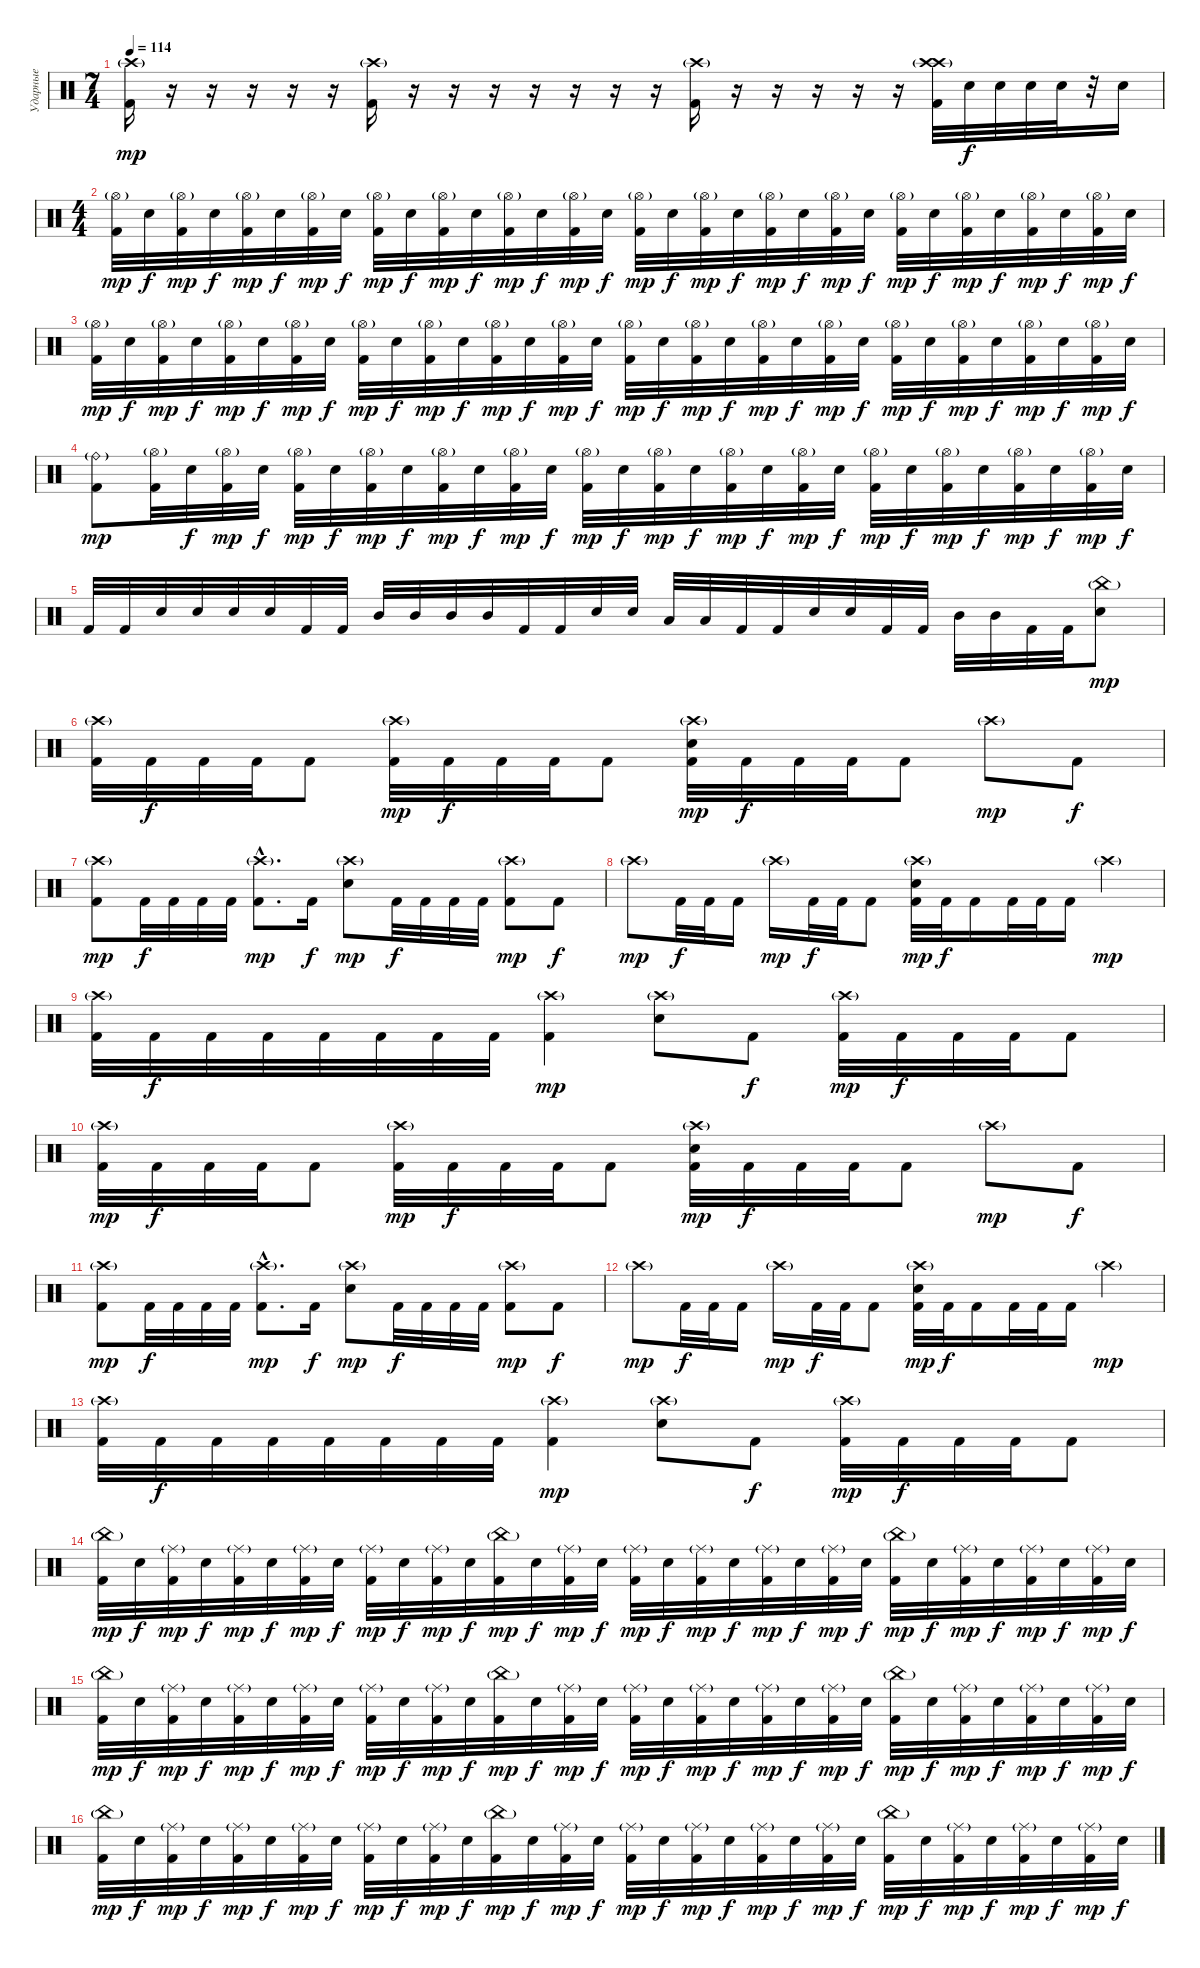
\track ("Ударные" "Ударные") {instrument percussion}
\staff {score}
\articulation defaults
\ts (7 4)
\tempo 114
\clef neutral
\ks c
("Crash high (hit)"{g} "Kick (hit) 2").16{dy mp} r.16 r.16 r.16 r.16 r.16 ("Crash high (hit)"{g} "Kick (hit) 2").16 r.16 r.16 r.16 r.16 r.16 r.16 r.16 ("Crash high (hit)"{g} "Kick (hit) 2").16 r.16 r.16 r.16 r.16 r.16 ("Crash high (hit)"{g} "Kick (hit) 2" "Crash high (hit)").32 "Electric Snare (hit)".32{dy f} "Electric Snare (hit)".32 "Electric Snare (hit)".32 "Electric Snare (hit)".32 r.32 "Electric Snare (hit)".16 |
\ts (4 4)
("Hi-Hat (open)"{g} "Kick (hit) 2").32{dy mp} "Electric Snare (hit)".32{dy f} ("Hi-Hat (open)"{g} "Kick (hit) 2").32{dy mp} "Electric Snare (hit)".32{dy f} ("Hi-Hat (open)"{g} "Kick (hit) 2").32{dy mp} "Electric Snare (hit)".32{dy f} ("Hi-Hat (open)"{g} "Kick (hit) 2").32{dy mp} "Electric Snare (hit)".32{dy f} ("Hi-Hat (open)"{g} "Kick (hit) 2").32{dy mp} "Electric Snare (hit)".32{dy f} ("Hi-Hat (open)"{g} "Kick (hit) 2").32{dy mp} "Electric Snare (hit)".32{dy f} ("Hi-Hat (open)"{g} "Kick (hit) 2").32{dy mp} "Electric Snare (hit)".32{dy f} ("Hi-Hat (open)"{g} "Kick (hit) 2").32{dy mp} "Electric Snare (hit)".32{dy f} ("Hi-Hat (open)"{g} "Kick (hit) 2").32{dy mp} "Electric Snare (hit)".32{dy f} ("Hi-Hat (open)"{g} "Kick (hit) 2").32{dy mp} "Electric Snare (hit)".32{dy f} ("Hi-Hat (open)"{g} "Kick (hit) 2").32{dy mp} "Electric Snare (hit)".32{dy f} ("Hi-Hat (open)"{g} "Kick (hit) 2").32{dy mp} "Electric Snare (hit)".32{dy f} ("Hi-Hat (open)"{g} "Kick (hit) 2").32{dy mp} "Electric Snare (hit)".32{dy f} ("Hi-Hat (open)"{g} "Kick (hit) 2").32{dy mp} "Electric Snare (hit)".32{dy f} ("Hi-Hat (open)"{g} "Kick (hit) 2").32{dy mp} "Electric Snare (hit)".32{dy f} ("Hi-Hat (open)"{g} "Kick (hit) 2").32{dy mp} "Electric Snare (hit)".32{dy f} |
("Hi-Hat (open)"{g} "Kick (hit) 2").32{dy mp} "Electric Snare (hit)".32{dy f} ("Hi-Hat (open)"{g} "Kick (hit) 2").32{dy mp} "Electric Snare (hit)".32{dy f} ("Hi-Hat (open)"{g} "Kick (hit) 2").32{dy mp} "Electric Snare (hit)".32{dy f} ("Hi-Hat (open)"{g} "Kick (hit) 2").32{dy mp} "Electric Snare (hit)".32{dy f} ("Hi-Hat (open)"{g} "Kick (hit) 2").32{dy mp} "Electric Snare (hit)".32{dy f} ("Hi-Hat (open)"{g} "Kick (hit) 2").32{dy mp} "Electric Snare (hit)".32{dy f} ("Hi-Hat (open)"{g} "Kick (hit) 2").32{dy mp} "Electric Snare (hit)".32{dy f} ("Hi-Hat (open)"{g} "Kick (hit) 2").32{dy mp} "Electric Snare (hit)".32{dy f} ("Hi-Hat (open)"{g} "Kick (hit) 2").32{dy mp} "Electric Snare (hit)".32{dy f} ("Hi-Hat (open)"{g} "Kick (hit) 2").32{dy mp} "Electric Snare (hit)".32{dy f} ("Hi-Hat (open)"{g} "Kick (hit) 2").32{dy mp} "Electric Snare (hit)".32{dy f} ("Hi-Hat (open)"{g} "Kick (hit) 2").32{dy mp} "Electric Snare (hit)".32{dy f} ("Hi-Hat (open)"{g} "Kick (hit) 2").32{dy mp} "Electric Snare (hit)".32{dy f} ("Hi-Hat (open)"{g} "Kick (hit) 2").32{dy mp} "Electric Snare (hit)".32{dy f} ("Hi-Hat (open)"{g} "Kick (hit) 2").32{dy mp} "Electric Snare (hit)".32{dy f} ("Hi-Hat (open)"{g} "Kick (hit) 2").32{dy mp} "Electric Snare (hit)".32{dy f} |
("Ride (bell)"{g} "Kick (hit) 2").8{dy mp} ("Hi-Hat (open)"{g} "Kick (hit) 2").32 "Electric Snare (hit)".32{dy f} ("Hi-Hat (open)"{g} "Kick (hit) 2").32{dy mp} "Electric Snare (hit)".32{dy f} ("Hi-Hat (open)"{g} "Kick (hit) 2").32{dy mp} "Electric Snare (hit)".32{dy f} ("Hi-Hat (open)"{g} "Kick (hit) 2").32{dy mp} "Electric Snare (hit)".32{dy f} ("Hi-Hat (open)"{g} "Kick (hit) 2").32{dy mp} "Electric Snare (hit)".32{dy f} ("Hi-Hat (open)"{g} "Kick (hit) 2").32{dy mp} "Electric Snare (hit)".32{dy f} ("Hi-Hat (open)"{g} "Kick (hit) 2").32{dy mp} "Electric Snare (hit)".32{dy f} ("Hi-Hat (open)"{g} "Kick (hit) 2").32{dy mp} "Electric Snare (hit)".32{dy f} ("Hi-Hat (open)"{g} "Kick (hit) 2").32{dy mp} "Electric Snare (hit)".32{dy f} ("Hi-Hat (open)"{g} "Kick (hit) 2").32{dy mp} "Electric Snare (hit)".32{dy f} ("Hi-Hat (open)"{g} "Kick (hit) 2").32{dy mp} "Electric Snare (hit)".32{dy f} ("Hi-Hat (open)"{g} "Kick (hit) 2").32{dy mp} "Electric Snare (hit)".32{dy f} ("Hi-Hat (open)"{g} "Kick (hit) 2").32{dy mp} "Electric Snare (hit)".32{dy f} ("Hi-Hat (open)"{g} "Kick (hit) 2").32{dy mp} "Electric Snare (hit)".32{dy f} |
"Kick (hit) 2".32 "Kick (hit) 2".32 "Electric Snare (hit)".32 "Electric Snare (hit)".32 "Electric Snare (hit)".32 "Electric Snare (hit)".32 "Kick (hit) 2".32 "Kick (hit) 2".32 "Mid Tom (hit)".32 "Mid Tom (hit)".32 "Mid Tom (hit)".32 "Mid Tom (hit)".32 "Kick (hit) 2".32 "Kick (hit) 2".32 "Electric Snare (hit)".32 "Electric Snare (hit)".32 "Low Tom (hit)".32 "Low Tom (hit)".32 "Kick (hit) 2".32 "Kick (hit) 2".32 "Electric Snare (hit)".32 "Electric Snare (hit)".32 "Kick (hit) 2".32 "Kick (hit) 2".32 "Mid Tom (hit)".32 "Mid Tom (hit)".32 "Kick (hit) 2".32 "Kick (hit) 2".32 ("China (hit)"{g} "Electric Snare (hit)").8{dy mp} |
("Crash high (hit)"{g} "Kick (hit) 2").32 "Kick (hit) 2".32{dy f} "Kick (hit) 2".32 "Kick (hit) 2".32 "Kick (hit) 2".8 ("Crash high (hit)"{g} "Kick (hit) 2").32{dy mp} "Kick (hit) 2".32{dy f} "Kick (hit) 2".32 "Kick (hit) 2".32 "Kick (hit) 2".8 ("Crash high (hit)"{g} "Electric Snare (hit)" "Kick (hit) 2").32{dy mp} "Kick (hit) 2".32{dy f} "Kick (hit) 2".32 "Kick (hit) 2".32 "Kick (hit) 2".8 "Crash high (hit)"{g}.8{dy mp} "Kick (hit) 2".8{dy f} |
("Crash high (hit)"{g} "Kick (hit) 2").8{dy mp} "Kick (hit) 2".32{dy f} "Kick (hit) 2".32 "Kick (hit) 2".32 "Kick (hit) 2".32 ("Crash high (hit)"{g hac} "Kick (hit) 2"{hac}).8{d dy mp} "Kick (hit) 2".16{dy f} ("Crash high (hit)"{g} "Electric Snare (hit)").8{dy mp} "Kick (hit) 2".32{dy f} "Kick (hit) 2".32 "Kick (hit) 2".32 "Kick (hit) 2".32 ("Crash high (hit)"{g} "Kick (hit) 2").8{dy mp} "Kick (hit) 2".8{dy f} |
"Crash high (hit)"{g}.8{dy mp} "Kick (hit) 2".32{dy f} "Kick (hit) 2".32 "Kick (hit) 2".16 "Crash high (hit)"{g}.16{dy mp} "Kick (hit) 2".32{dy f} "Kick (hit) 2".32 "Kick (hit) 2".8 ("Crash high (hit)"{g} "Electric Snare (hit)" "Kick (hit) 2").32{dy mp} "Kick (hit) 2".32{dy f} "Kick (hit) 2".16 "Kick (hit) 2".32 "Kick (hit) 2".32 "Kick (hit) 2".16 "Crash high (hit)"{g}.4{dy mp} |
("Crash high (hit)"{g} "Kick (hit) 2").32 "Kick (hit) 2".32{dy f} "Kick (hit) 2".32 "Kick (hit) 2".32 "Kick (hit) 2".32 "Kick (hit) 2".32 "Kick (hit) 2".32 "Kick (hit) 2".32 ("Crash high (hit)"{g} "Kick (hit) 2").4{dy mp} ("Crash high (hit)"{g} "Electric Snare (hit)").8 "Kick (hit) 2".8{dy f} ("Crash high (hit)"{g} "Kick (hit) 2").32{dy mp} "Kick (hit) 2".32{dy f} "Kick (hit) 2".32 "Kick (hit) 2".32 "Kick (hit) 2".8 |
("Crash high (hit)"{g} "Kick (hit) 2").32{dy mp} "Kick (hit) 2".32{dy f} "Kick (hit) 2".32 "Kick (hit) 2".32 "Kick (hit) 2".8 ("Crash high (hit)"{g} "Kick (hit) 2").32{dy mp} "Kick (hit) 2".32{dy f} "Kick (hit) 2".32 "Kick (hit) 2".32 "Kick (hit) 2".8 ("Crash high (hit)"{g} "Electric Snare (hit)" "Kick (hit) 2").32{dy mp} "Kick (hit) 2".32{dy f} "Kick (hit) 2".32 "Kick (hit) 2".32 "Kick (hit) 2".8 "Crash high (hit)"{g}.8{dy mp} "Kick (hit) 2".8{dy f} |
("Crash high (hit)"{g} "Kick (hit) 2").8{dy mp} "Kick (hit) 2".32{dy f} "Kick (hit) 2".32 "Kick (hit) 2".32 "Kick (hit) 2".32 ("Crash high (hit)"{g hac} "Kick (hit) 2"{hac}).8{d dy mp} "Kick (hit) 2".16{dy f} ("Crash high (hit)"{g} "Electric Snare (hit)").8{dy mp} "Kick (hit) 2".32{dy f} "Kick (hit) 2".32 "Kick (hit) 2".32 "Kick (hit) 2".32 ("Crash high (hit)"{g} "Kick (hit) 2").8{dy mp} "Kick (hit) 2".8{dy f} |
"Crash high (hit)"{g}.8{dy mp} "Kick (hit) 2".32{dy f} "Kick (hit) 2".32 "Kick (hit) 2".16 "Crash high (hit)"{g}.16{dy mp} "Kick (hit) 2".32{dy f} "Kick (hit) 2".32 "Kick (hit) 2".8 ("Crash high (hit)"{g} "Electric Snare (hit)" "Kick (hit) 2").32{dy mp} "Kick (hit) 2".32{dy f} "Kick (hit) 2".16 "Kick (hit) 2".32 "Kick (hit) 2".32 "Kick (hit) 2".16 "Crash high (hit)"{g}.4{dy mp} |
("Crash high (hit)"{g} "Kick (hit) 2").32 "Kick (hit) 2".32{dy f} "Kick (hit) 2".32 "Kick (hit) 2".32 "Kick (hit) 2".32 "Kick (hit) 2".32 "Kick (hit) 2".32 "Kick (hit) 2".32 ("Crash high (hit)"{g} "Kick (hit) 2").4{dy mp} ("Crash high (hit)"{g} "Electric Snare (hit)").8 "Kick (hit) 2".8{dy f} ("Crash high (hit)"{g} "Kick (hit) 2").32{dy mp} "Kick (hit) 2".32{dy f} "Kick (hit) 2".32 "Kick (hit) 2".32 "Kick (hit) 2".8 |
("China (hit)"{g} "Kick (hit) 2").32{dy mp} "Electric Snare (hit)".32{dy f} ("Ride (middle)"{g} "Kick (hit) 2").32{dy mp} "Electric Snare (hit)".32{dy f} ("Ride (middle)"{g} "Kick (hit) 2").32{dy mp} "Electric Snare (hit)".32{dy f} ("Ride (middle)"{g} "Kick (hit) 2").32{dy mp} "Electric Snare (hit)".32{dy f} ("Ride (middle)"{g} "Kick (hit) 2").32{dy mp} "Electric Snare (hit)".32{dy f} ("Ride (middle)"{g} "Kick (hit) 2").32{dy mp} "Electric Snare (hit)".32{dy f} ("China (hit)"{g} "Kick (hit) 2").32{dy mp} "Electric Snare (hit)".32{dy f} ("Ride (middle)"{g} "Kick (hit) 2").32{dy mp} "Electric Snare (hit)".32{dy f} ("Ride (middle)"{g} "Kick (hit) 2").32{dy mp} "Electric Snare (hit)".32{dy f} ("Ride (middle)"{g} "Kick (hit) 2").32{dy mp} "Electric Snare (hit)".32{dy f} ("Ride (middle)"{g} "Kick (hit) 2").32{dy mp} "Electric Snare (hit)".32{dy f} ("Ride (middle)"{g} "Kick (hit) 2").32{dy mp} "Electric Snare (hit)".32{dy f} ("China (hit)"{g} "Kick (hit) 2").32{dy mp} "Electric Snare (hit)".32{dy f} ("Ride (middle)"{g} "Kick (hit) 2").32{dy mp} "Electric Snare (hit)".32{dy f} ("Ride (middle)"{g} "Kick (hit) 2").32{dy mp} "Electric Snare (hit)".32{dy f} ("Ride (middle)"{g} "Kick (hit) 2").32{dy mp} "Electric Snare (hit)".32{dy f} |
("China (hit)"{g} "Kick (hit) 2").32{dy mp} "Electric Snare (hit)".32{dy f} ("Ride (middle)"{g} "Kick (hit) 2").32{dy mp} "Electric Snare (hit)".32{dy f} ("Ride (middle)"{g} "Kick (hit) 2").32{dy mp} "Electric Snare (hit)".32{dy f} ("Ride (middle)"{g} "Kick (hit) 2").32{dy mp} "Electric Snare (hit)".32{dy f} ("Ride (middle)"{g} "Kick (hit) 2").32{dy mp} "Electric Snare (hit)".32{dy f} ("Ride (middle)"{g} "Kick (hit) 2").32{dy mp} "Electric Snare (hit)".32{dy f} ("China (hit)"{g} "Kick (hit) 2").32{dy mp} "Electric Snare (hit)".32{dy f} ("Ride (middle)"{g} "Kick (hit) 2").32{dy mp} "Electric Snare (hit)".32{dy f} ("Ride (middle)"{g} "Kick (hit) 2").32{dy mp} "Electric Snare (hit)".32{dy f} ("Ride (middle)"{g} "Kick (hit) 2").32{dy mp} "Electric Snare (hit)".32{dy f} ("Ride (middle)"{g} "Kick (hit) 2").32{dy mp} "Electric Snare (hit)".32{dy f} ("Ride (middle)"{g} "Kick (hit) 2").32{dy mp} "Electric Snare (hit)".32{dy f} ("China (hit)"{g} "Kick (hit) 2").32{dy mp} "Electric Snare (hit)".32{dy f} ("Ride (middle)"{g} "Kick (hit) 2").32{dy mp} "Electric Snare (hit)".32{dy f} ("Ride (middle)"{g} "Kick (hit) 2").32{dy mp} "Electric Snare (hit)".32{dy f} ("Ride (middle)"{g} "Kick (hit) 2").32{dy mp} "Electric Snare (hit)".32{dy f} |
("China (hit)"{g} "Kick (hit) 2").32{dy mp} "Electric Snare (hit)".32{dy f} ("Ride (middle)"{g} "Kick (hit) 2").32{dy mp} "Electric Snare (hit)".32{dy f} ("Ride (middle)"{g} "Kick (hit) 2").32{dy mp} "Electric Snare (hit)".32{dy f} ("Ride (middle)"{g} "Kick (hit) 2").32{dy mp} "Electric Snare (hit)".32{dy f} ("Ride (middle)"{g} "Kick (hit) 2").32{dy mp} "Electric Snare (hit)".32{dy f} ("Ride (middle)"{g} "Kick (hit) 2").32{dy mp} "Electric Snare (hit)".32{dy f} ("China (hit)"{g} "Kick (hit) 2").32{dy mp} "Electric Snare (hit)".32{dy f} ("Ride (middle)"{g} "Kick (hit) 2").32{dy mp} "Electric Snare (hit)".32{dy f} ("Ride (middle)"{g} "Kick (hit) 2").32{dy mp} "Electric Snare (hit)".32{dy f} ("Ride (middle)"{g} "Kick (hit) 2").32{dy mp} "Electric Snare (hit)".32{dy f} ("Ride (middle)"{g} "Kick (hit) 2").32{dy mp} "Electric Snare (hit)".32{dy f} ("Ride (middle)"{g} "Kick (hit) 2").32{dy mp} "Electric Snare (hit)".32{dy f} ("China (hit)"{g} "Kick (hit) 2").32{dy mp} "Electric Snare (hit)".32{dy f} ("Ride (middle)"{g} "Kick (hit) 2").32{dy mp} "Electric Snare (hit)".32{dy f} ("Ride (middle)"{g} "Kick (hit) 2").32{dy mp} "Electric Snare (hit)".32{dy f} ("Ride (middle)"{g} "Kick (hit) 2").32{dy mp} "Electric Snare (hit)".32{dy f}
